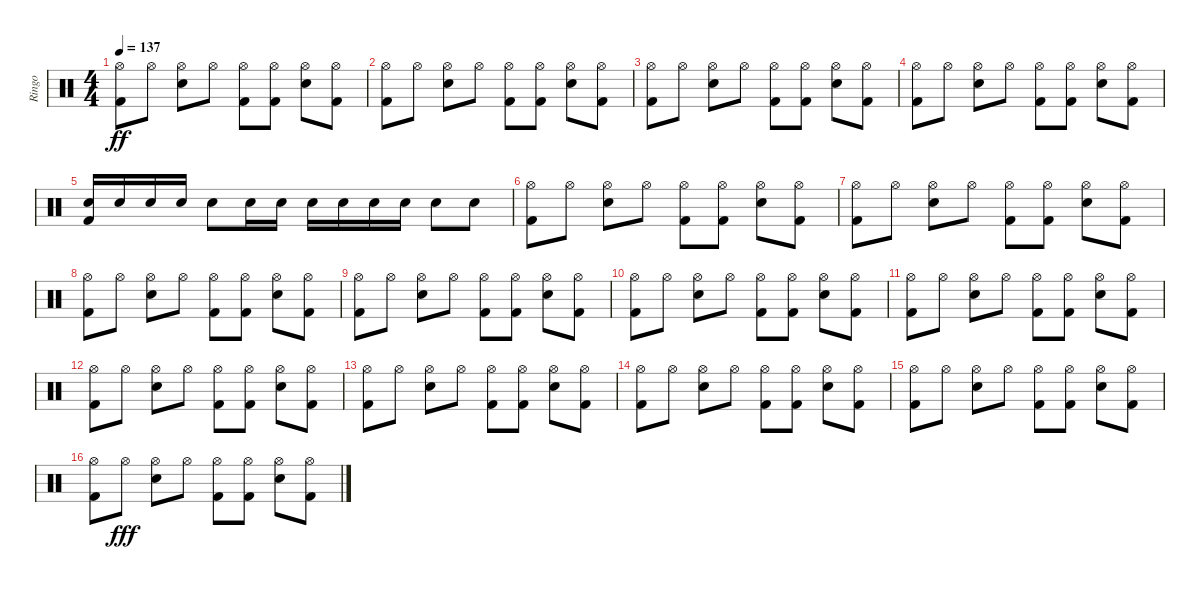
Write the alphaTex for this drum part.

\track ("Ringo" "Ringo") {instrument percussion}
\staff {score}
\articulation defaults
\ts (4 4)
\tempo 137
\clef neutral
\ks c
("Kick (hit) 2" "Hi-Hat (open)").8{dy ff} "Hi-Hat (open)".8 ("Snare (hit) 2" "Hi-Hat (open)").8 "Hi-Hat (open)".8 ("Kick (hit) 2" "Hi-Hat (open)").8 ("Kick (hit) 2" "Hi-Hat (open)").8 ("Snare (hit) 2" "Hi-Hat (open)").8 ("Kick (hit) 2" "Hi-Hat (open)").8 |
("Kick (hit) 2" "Hi-Hat (open)").8 "Hi-Hat (open)".8 ("Snare (hit) 2" "Hi-Hat (open)").8 "Hi-Hat (open)".8 ("Kick (hit) 2" "Hi-Hat (open)").8 ("Kick (hit) 2" "Hi-Hat (open)").8 ("Snare (hit) 2" "Hi-Hat (open)").8 ("Kick (hit) 2" "Hi-Hat (open)").8 |
("Kick (hit) 2" "Hi-Hat (open)").8 "Hi-Hat (open)".8 ("Snare (hit) 2" "Hi-Hat (open)").8 "Hi-Hat (open)".8 ("Kick (hit) 2" "Hi-Hat (open)").8 ("Kick (hit) 2" "Hi-Hat (open)").8 ("Snare (hit) 2" "Hi-Hat (open)").8 ("Kick (hit) 2" "Hi-Hat (open)").8 |
("Kick (hit) 2" "Hi-Hat (open)").8 "Hi-Hat (open)".8 ("Snare (hit) 2" "Hi-Hat (open)").8 "Hi-Hat (open)".8 ("Kick (hit) 2" "Hi-Hat (open)").8 ("Kick (hit) 2" "Hi-Hat (open)").8 ("Snare (hit) 2" "Hi-Hat (open)").8 ("Kick (hit) 2" "Hi-Hat (open)").8 |
("Kick (hit) 2" "Snare (hit) 2").16 "Snare (hit) 2".16 "Snare (hit) 2".16 "Snare (hit) 2".16 "Snare (hit) 2".8 "Snare (hit) 2".16 "Snare (hit) 2".16 "Snare (hit) 2".16 "Snare (hit) 2".16 "Snare (hit) 2".16 "Snare (hit) 2".16 "Snare (hit) 2".8 "Snare (hit) 2".8 |
("Kick (hit) 2" "Hi-Hat (open)").8 "Hi-Hat (open)".8 ("Snare (hit) 2" "Hi-Hat (open)").8 "Hi-Hat (open)".8 ("Kick (hit) 2" "Hi-Hat (open)").8 ("Kick (hit) 2" "Hi-Hat (open)").8 ("Snare (hit) 2" "Hi-Hat (open)").8 ("Kick (hit) 2" "Hi-Hat (open)").8 |
("Kick (hit) 2" "Hi-Hat (open)").8 "Hi-Hat (open)".8 ("Snare (hit) 2" "Hi-Hat (open)").8 "Hi-Hat (open)".8 ("Kick (hit) 2" "Hi-Hat (open)").8 ("Kick (hit) 2" "Hi-Hat (open)").8 ("Snare (hit) 2" "Hi-Hat (open)").8 ("Kick (hit) 2" "Hi-Hat (open)").8 |
("Kick (hit) 2" "Hi-Hat (open)").8 "Hi-Hat (open)".8 ("Snare (hit) 2" "Hi-Hat (open)").8 "Hi-Hat (open)".8 ("Kick (hit) 2" "Hi-Hat (open)").8 ("Kick (hit) 2" "Hi-Hat (open)").8 ("Snare (hit) 2" "Hi-Hat (open)").8 ("Kick (hit) 2" "Hi-Hat (open)").8 |
("Kick (hit) 2" "Hi-Hat (open)").8 "Hi-Hat (open)".8 ("Snare (hit) 2" "Hi-Hat (open)").8 "Hi-Hat (open)".8 ("Kick (hit) 2" "Hi-Hat (open)").8 ("Kick (hit) 2" "Hi-Hat (open)").8 ("Snare (hit) 2" "Hi-Hat (open)").8 ("Kick (hit) 2" "Hi-Hat (open)").8 |
("Kick (hit) 2" "Hi-Hat (open)").8 "Hi-Hat (open)".8 ("Snare (hit) 2" "Hi-Hat (open)").8 "Hi-Hat (open)".8 ("Kick (hit) 2" "Hi-Hat (open)").8 ("Kick (hit) 2" "Hi-Hat (open)").8 ("Snare (hit) 2" "Hi-Hat (open)").8 ("Kick (hit) 2" "Hi-Hat (open)").8 |
("Kick (hit) 2" "Hi-Hat (open)").8 "Hi-Hat (open)".8 ("Snare (hit) 2" "Hi-Hat (open)").8 "Hi-Hat (open)".8 ("Kick (hit) 2" "Hi-Hat (open)").8 ("Kick (hit) 2" "Hi-Hat (open)").8 ("Snare (hit) 2" "Hi-Hat (open)").8 ("Kick (hit) 2" "Hi-Hat (open)").8 |
("Kick (hit) 2" "Hi-Hat (open)").8 "Hi-Hat (open)".8 ("Snare (hit) 2" "Hi-Hat (open)").8 "Hi-Hat (open)".8 ("Kick (hit) 2" "Hi-Hat (open)").8 ("Kick (hit) 2" "Hi-Hat (open)").8 ("Snare (hit) 2" "Hi-Hat (open)").8 ("Kick (hit) 2" "Hi-Hat (open)").8 |
("Kick (hit) 2" "Hi-Hat (open)").8 "Hi-Hat (open)".8 ("Snare (hit) 2" "Hi-Hat (open)").8 "Hi-Hat (open)".8 ("Kick (hit) 2" "Hi-Hat (open)").8 ("Kick (hit) 2" "Hi-Hat (open)").8 ("Snare (hit) 2" "Hi-Hat (open)").8 ("Kick (hit) 2" "Hi-Hat (open)").8 |
("Kick (hit) 2" "Hi-Hat (open)").8 "Hi-Hat (open)".8 ("Snare (hit) 2" "Hi-Hat (open)").8 "Hi-Hat (open)".8 ("Kick (hit) 2" "Hi-Hat (open)").8 ("Kick (hit) 2" "Hi-Hat (open)").8 ("Snare (hit) 2" "Hi-Hat (open)").8 ("Kick (hit) 2" "Hi-Hat (open)").8 |
("Kick (hit) 2" "Hi-Hat (open)").8 "Hi-Hat (open)".8 ("Snare (hit) 2" "Hi-Hat (open)").8 "Hi-Hat (open)".8 ("Kick (hit) 2" "Hi-Hat (open)").8 ("Kick (hit) 2" "Hi-Hat (open)").8 ("Snare (hit) 2" "Hi-Hat (open)").8 ("Kick (hit) 2" "Hi-Hat (open)").8 |
("Kick (hit) 2" "Hi-Hat (open)").8 "Hi-Hat (open)".8{dy fff} ("Snare (hit) 2" "Hi-Hat (open)").8 "Hi-Hat (open)".8 ("Kick (hit) 2" "Hi-Hat (open)").8 ("Kick (hit) 2" "Hi-Hat (open)").8 ("Snare (hit) 2" "Hi-Hat (open)").8 ("Kick (hit) 2" "Hi-Hat (open)").8
